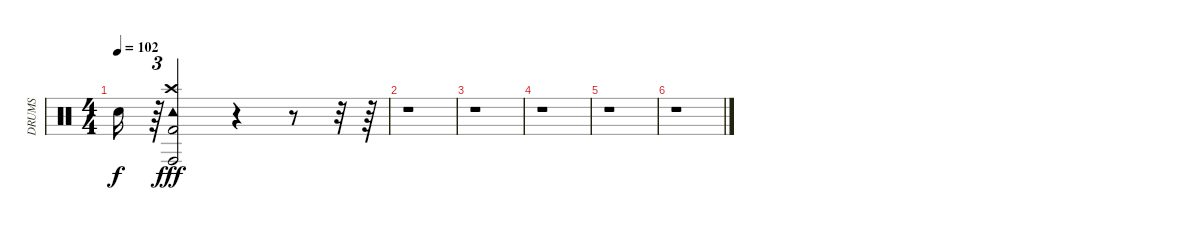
\track ("DRUMS" "DRUMS") {instrument percussion}
\staff {score}
\articulation defaults
\ts (4 4)
\tempo 102
\clef neutral
\ks c "Snare (hit)"{t}.16{dy f}
r.64{tu (3 2)} ("Conga high (hit)" "Crash high (hit)" "Kick (hit) 2" "Tambourine (hit)").2{dy fff} r.4 r.8 r.32 r.64 |
r.1 |
r.1 |
r.1 |
r.1 |
r.1
